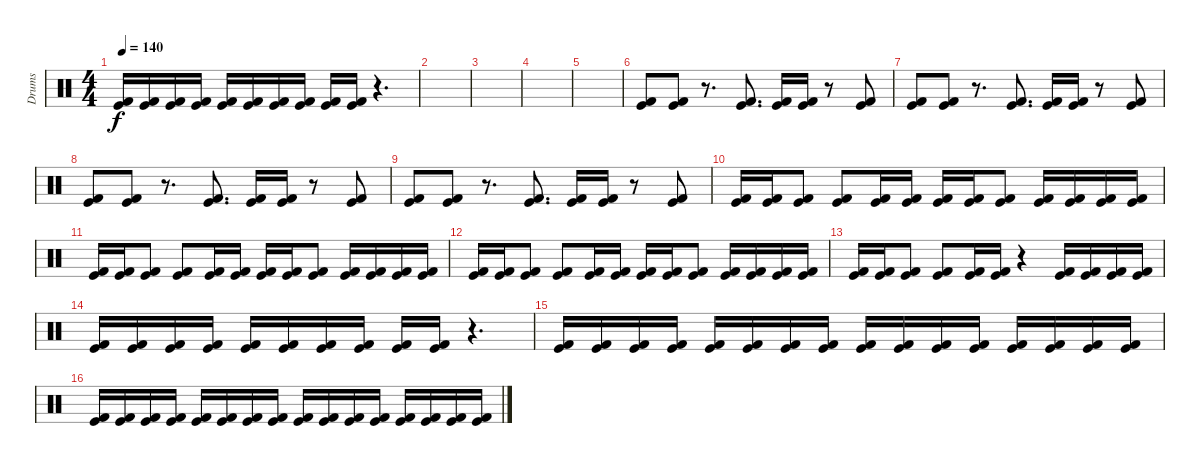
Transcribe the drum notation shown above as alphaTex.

\track ("Drums" "Drums") {instrument percussion}
\staff {score}
\articulation defaults
\ts (4 4)
\tempo 140
\clef neutral
\ks c
("Kick (hit) 2" "Kick (hit)").16{dy f} ("Kick (hit) 2" "Kick (hit)").16 ("Kick (hit) 2" "Kick (hit)").16 ("Kick (hit) 2" "Kick (hit)").16 ("Kick (hit) 2" "Kick (hit)").16 ("Kick (hit) 2" "Kick (hit)").16 ("Kick (hit) 2" "Kick (hit)").16 ("Kick (hit) 2" "Kick (hit)").16 ("Kick (hit) 2" "Kick (hit)").16 ("Kick (hit) 2" "Kick (hit)").16 r.4{d} |
|
|
|
|
("Kick (hit) 2" "Kick (hit)").8 ("Kick (hit) 2" "Kick (hit)").8 r.8{d} ("Kick (hit) 2" "Kick (hit)").8{d} ("Kick (hit) 2" "Kick (hit)").16 ("Kick (hit) 2" "Kick (hit)").16 r.8 ("Kick (hit) 2" "Kick (hit)").8 |
("Kick (hit) 2" "Kick (hit)").8 ("Kick (hit) 2" "Kick (hit)").8 r.8{d} ("Kick (hit) 2" "Kick (hit)").8{d} ("Kick (hit) 2" "Kick (hit)").16 ("Kick (hit) 2" "Kick (hit)").16 r.8 ("Kick (hit) 2" "Kick (hit)").8 |
("Kick (hit) 2" "Kick (hit)").8 ("Kick (hit) 2" "Kick (hit)").8 r.8{d} ("Kick (hit) 2" "Kick (hit)").8{d} ("Kick (hit) 2" "Kick (hit)").16 ("Kick (hit) 2" "Kick (hit)").16 r.8 ("Kick (hit) 2" "Kick (hit)").8 |
("Kick (hit) 2" "Kick (hit)").8 ("Kick (hit) 2" "Kick (hit)").8 r.8{d} ("Kick (hit) 2" "Kick (hit)").8{d} ("Kick (hit) 2" "Kick (hit)").16 ("Kick (hit) 2" "Kick (hit)").16 r.8 ("Kick (hit) 2" "Kick (hit)").8 |
("Kick (hit) 2" "Kick (hit)").16 ("Kick (hit) 2" "Kick (hit)").16 ("Kick (hit) 2" "Kick (hit)").8 ("Kick (hit) 2" "Kick (hit)").8 ("Kick (hit) 2" "Kick (hit)").16 ("Kick (hit) 2" "Kick (hit)").16 ("Kick (hit) 2" "Kick (hit)").16 ("Kick (hit) 2" "Kick (hit)").16 ("Kick (hit) 2" "Kick (hit)").8 ("Kick (hit) 2" "Kick (hit)").16 ("Kick (hit) 2" "Kick (hit)").16 ("Kick (hit) 2" "Kick (hit)").16 ("Kick (hit) 2" "Kick (hit)").16 |
("Kick (hit) 2" "Kick (hit)").16 ("Kick (hit) 2" "Kick (hit)").16 ("Kick (hit) 2" "Kick (hit)").8 ("Kick (hit) 2" "Kick (hit)").8 ("Kick (hit) 2" "Kick (hit)").16 ("Kick (hit) 2" "Kick (hit)").16 ("Kick (hit) 2" "Kick (hit)").16 ("Kick (hit) 2" "Kick (hit)").16 ("Kick (hit) 2" "Kick (hit)").8 ("Kick (hit) 2" "Kick (hit)").16 ("Kick (hit) 2" "Kick (hit)").16 ("Kick (hit) 2" "Kick (hit)").16 ("Kick (hit) 2" "Kick (hit)").16 |
("Kick (hit) 2" "Kick (hit)").16 ("Kick (hit) 2" "Kick (hit)").16 ("Kick (hit) 2" "Kick (hit)").8 ("Kick (hit) 2" "Kick (hit)").8 ("Kick (hit) 2" "Kick (hit)").16 ("Kick (hit) 2" "Kick (hit)").16 ("Kick (hit) 2" "Kick (hit)").16 ("Kick (hit) 2" "Kick (hit)").16 ("Kick (hit) 2" "Kick (hit)").8 ("Kick (hit) 2" "Kick (hit)").16 ("Kick (hit) 2" "Kick (hit)").16 ("Kick (hit) 2" "Kick (hit)").16 ("Kick (hit) 2" "Kick (hit)").16 |
("Kick (hit) 2" "Kick (hit)").16 ("Kick (hit) 2" "Kick (hit)").16 ("Kick (hit) 2" "Kick (hit)").8 ("Kick (hit) 2" "Kick (hit)").8 ("Kick (hit) 2" "Kick (hit)").16 ("Kick (hit) 2" "Kick (hit)").16 r.4 ("Kick (hit) 2" "Kick (hit)").16 ("Kick (hit) 2" "Kick (hit)").16 ("Kick (hit) 2" "Kick (hit)").16 ("Kick (hit) 2" "Kick (hit)").16 |
("Kick (hit) 2" "Kick (hit)").16 ("Kick (hit) 2" "Kick (hit)").16 ("Kick (hit) 2" "Kick (hit)").16 ("Kick (hit) 2" "Kick (hit)").16 ("Kick (hit) 2" "Kick (hit)").16 ("Kick (hit) 2" "Kick (hit)").16 ("Kick (hit) 2" "Kick (hit)").16 ("Kick (hit) 2" "Kick (hit)").16 ("Kick (hit) 2" "Kick (hit)").16 ("Kick (hit) 2" "Kick (hit)").16 r.4{d} |
("Kick (hit) 2" "Kick (hit)").16 ("Kick (hit) 2" "Kick (hit)").16 ("Kick (hit) 2" "Kick (hit)").16 ("Kick (hit) 2" "Kick (hit)").16 ("Kick (hit) 2" "Kick (hit)").16 ("Kick (hit) 2" "Kick (hit)").16 ("Kick (hit) 2" "Kick (hit)").16 ("Kick (hit) 2" "Kick (hit)").16 ("Kick (hit) 2" "Kick (hit)").16 ("Kick (hit) 2" "Kick (hit)").16 ("Kick (hit) 2" "Kick (hit)").16 ("Kick (hit) 2" "Kick (hit)").16 ("Kick (hit) 2" "Kick (hit)").16 ("Kick (hit) 2" "Kick (hit)").16 ("Kick (hit) 2" "Kick (hit)").16 ("Kick (hit) 2" "Kick (hit)").16 |
("Kick (hit) 2" "Kick (hit)").16 ("Kick (hit) 2" "Kick (hit)").16 ("Kick (hit) 2" "Kick (hit)").16 ("Kick (hit) 2" "Kick (hit)").16 ("Kick (hit) 2" "Kick (hit)").16 ("Kick (hit) 2" "Kick (hit)").16 ("Kick (hit) 2" "Kick (hit)").16 ("Kick (hit) 2" "Kick (hit)").16 ("Kick (hit) 2" "Kick (hit)").16 ("Kick (hit) 2" "Kick (hit)").16 ("Kick (hit) 2" "Kick (hit)").16 ("Kick (hit) 2" "Kick (hit)").16 ("Kick (hit) 2" "Kick (hit)").16 ("Kick (hit) 2" "Kick (hit)").16 ("Kick (hit) 2" "Kick (hit)").16 ("Kick (hit) 2" "Kick (hit)").16
